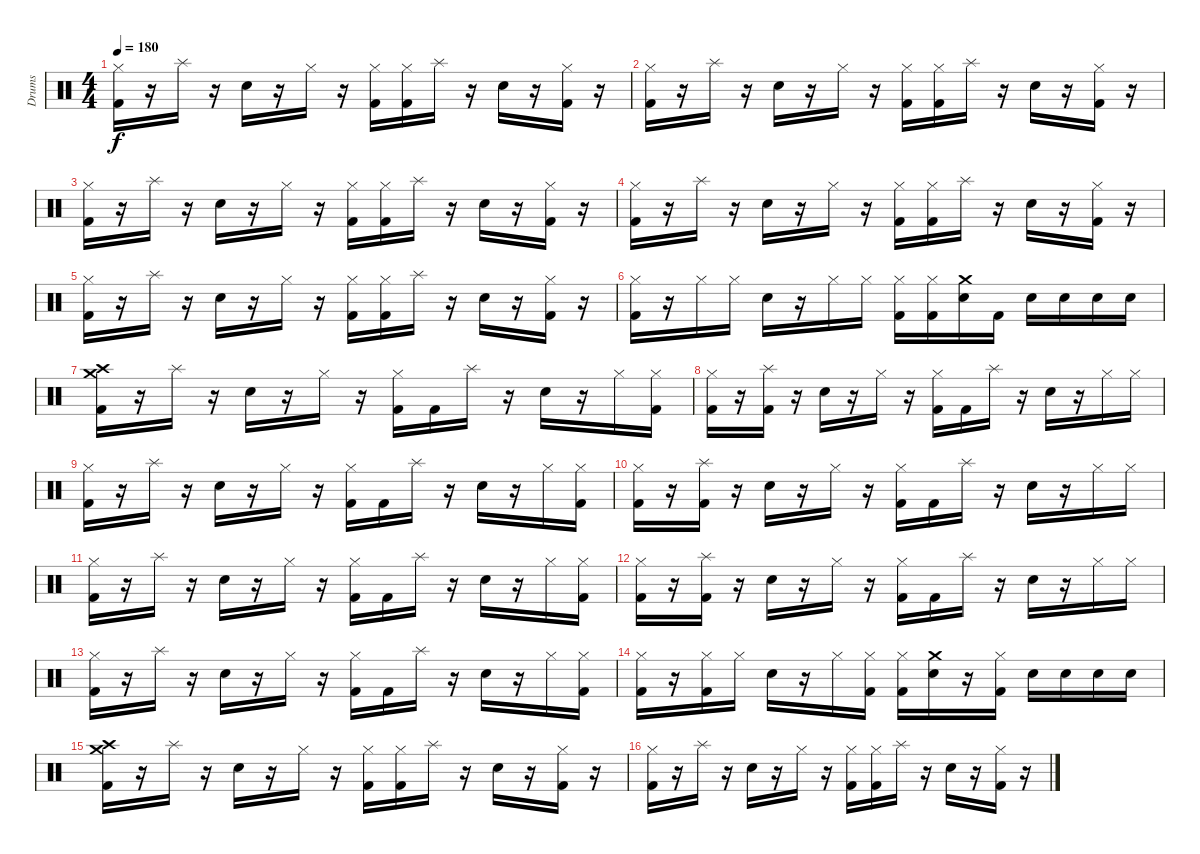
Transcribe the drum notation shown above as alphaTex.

\track ("Drums" "Drums") {instrument percussion}
\staff {score}
\articulation defaults
\ts (4 4)
\tempo 180
\clef neutral
\ks c
("Hi-Hat (closed)" "Kick (hit) 2").16{dy f} r.16 "Splash (hit)".16 r.16 "Snare (hit) 2".16 r.16 "Hi-Hat (closed)".16 r.16 ("Hi-Hat (closed)" "Kick (hit) 2").16 ("Hi-Hat (closed)" "Kick (hit) 2").16 "Splash (hit)".16 r.16 "Snare (hit) 2".16 r.16 ("Hi-Hat (closed)" "Kick (hit) 2").16 r.16 |
("Hi-Hat (closed)" "Kick (hit) 2").16 r.16 "Splash (hit)".16 r.16 "Snare (hit) 2".16 r.16 "Hi-Hat (closed)".16 r.16 ("Hi-Hat (closed)" "Kick (hit) 2").16 ("Hi-Hat (closed)" "Kick (hit) 2").16 "Splash (hit)".16 r.16 "Snare (hit) 2".16 r.16 ("Hi-Hat (closed)" "Kick (hit) 2").16 r.16 |
("Hi-Hat (closed)" "Kick (hit) 2").16 r.16 "Splash (hit)".16 r.16 "Snare (hit) 2".16 r.16 "Hi-Hat (closed)".16 r.16 ("Hi-Hat (closed)" "Kick (hit) 2").16 ("Hi-Hat (closed)" "Kick (hit) 2").16 "Splash (hit)".16 r.16 "Snare (hit) 2".16 r.16 ("Hi-Hat (closed)" "Kick (hit) 2").16 r.16 |
("Hi-Hat (closed)" "Kick (hit) 2").16 r.16 "Splash (hit)".16 r.16 "Snare (hit) 2".16 r.16 "Hi-Hat (closed)".16 r.16 ("Hi-Hat (closed)" "Kick (hit) 2").16 ("Hi-Hat (closed)" "Kick (hit) 2").16 "Splash (hit)".16 r.16 "Snare (hit) 2".16 r.16 ("Hi-Hat (closed)" "Kick (hit) 2").16 r.16 |
("Hi-Hat (closed)" "Kick (hit) 2").16 r.16 "Splash (hit)".16 r.16 "Snare (hit) 2".16 r.16 "Hi-Hat (closed)".16 r.16 ("Hi-Hat (closed)" "Kick (hit) 2").16 ("Hi-Hat (closed)" "Kick (hit) 2").16 "Splash (hit)".16 r.16 "Snare (hit) 2".16 r.16 ("Hi-Hat (closed)" "Kick (hit) 2").16 r.16 |
("Hi-Hat (closed)" "Kick (hit) 2").16 r.16 "Hi-Hat (closed)".16 "Hi-Hat (closed)".16 "Snare (hit) 2".16 r.16 "Hi-Hat (closed)".16 "Hi-Hat (closed)".16 ("Hi-Hat (closed)" "Kick (hit) 2").16 ("Hi-Hat (closed)" "Kick (hit) 2").16 ("Crash medium (hit)" "Snare (hit) 2").16 "Kick (hit) 2".16 "Snare (hit) 2".16 "Snare (hit) 2".16 "Snare (hit) 2".16 "Snare (hit) 2".16 |
("Crash medium (hit)" "Crash high (hit)" "Kick (hit) 2").16 r.16 "Splash (hit)".16 r.16 "Snare (hit) 2".16 r.16 "Hi-Hat (closed)".16 r.16 ("Hi-Hat (closed)" "Kick (hit) 2").16 "Kick (hit) 2".16 "Splash (hit)".16 r.16 "Snare (hit) 2".16 r.16 "Hi-Hat (closed)".16 ("Hi-Hat (closed)" "Kick (hit) 2").16 |
("Hi-Hat (closed)" "Kick (hit) 2").16 r.16 ("Splash (hit)" "Kick (hit) 2").16 r.16 "Snare (hit) 2".16 r.16 "Hi-Hat (closed)".16 r.16 ("Hi-Hat (closed)" "Kick (hit) 2").16 "Kick (hit) 2".16 "Splash (hit)".16 r.16 "Snare (hit) 2".16 r.16 "Hi-Hat (closed)".16 "Hi-Hat (closed)".16 |
("Hi-Hat (closed)" "Kick (hit) 2").16 r.16 "Splash (hit)".16 r.16 "Snare (hit) 2".16 r.16 "Hi-Hat (closed)".16 r.16 ("Hi-Hat (closed)" "Kick (hit) 2").16 "Kick (hit) 2".16 "Splash (hit)".16 r.16 "Snare (hit) 2".16 r.16 "Hi-Hat (closed)".16 ("Hi-Hat (closed)" "Kick (hit) 2").16 |
("Hi-Hat (closed)" "Kick (hit) 2").16 r.16 ("Splash (hit)" "Kick (hit) 2").16 r.16 "Snare (hit) 2".16 r.16 "Hi-Hat (closed)".16 r.16 ("Hi-Hat (closed)" "Kick (hit) 2").16 "Kick (hit) 2".16 "Splash (hit)".16 r.16 "Snare (hit) 2".16 r.16 "Hi-Hat (closed)".16 "Hi-Hat (closed)".16 |
("Hi-Hat (closed)" "Kick (hit) 2").16 r.16 "Splash (hit)".16 r.16 "Snare (hit) 2".16 r.16 "Hi-Hat (closed)".16 r.16 ("Hi-Hat (closed)" "Kick (hit) 2").16 "Kick (hit) 2".16 "Splash (hit)".16 r.16 "Snare (hit) 2".16 r.16 "Hi-Hat (closed)".16 ("Hi-Hat (closed)" "Kick (hit) 2").16 |
("Hi-Hat (closed)" "Kick (hit) 2").16 r.16 ("Splash (hit)" "Kick (hit) 2").16 r.16 "Snare (hit) 2".16 r.16 "Hi-Hat (closed)".16 r.16 ("Hi-Hat (closed)" "Kick (hit) 2").16 "Kick (hit) 2".16 "Splash (hit)".16 r.16 "Snare (hit) 2".16 r.16 "Hi-Hat (closed)".16 "Hi-Hat (closed)".16 |
("Hi-Hat (closed)" "Kick (hit) 2").16 r.16 "Splash (hit)".16 r.16 "Snare (hit) 2".16 r.16 "Hi-Hat (closed)".16 r.16 ("Hi-Hat (closed)" "Kick (hit) 2").16 "Kick (hit) 2".16 "Splash (hit)".16 r.16 "Snare (hit) 2".16 r.16 "Hi-Hat (closed)".16 ("Hi-Hat (closed)" "Kick (hit) 2").16 |
("Hi-Hat (closed)" "Kick (hit) 2").16 r.16 ("Hi-Hat (closed)" "Kick (hit) 2").16 "Hi-Hat (closed)".16 "Snare (hit) 2".16 r.16 "Hi-Hat (closed)".16 ("Hi-Hat (closed)" "Kick (hit) 2").16 ("Hi-Hat (closed)" "Kick (hit) 2").16 ("Crash medium (hit)" "Snare (hit) 2").16 r.16 ("Hi-Hat (closed)" "Kick (hit) 2").16 "Snare (hit) 2".16 "Snare (hit) 2".16 "Snare (hit) 2".16 "Snare (hit) 2".16 |
("Crash medium (hit)" "Crash high (hit)" "Kick (hit) 2").16 r.16 "Splash (hit)".16 r.16 "Snare (hit) 2".16 r.16 "Hi-Hat (closed)".16 r.16 ("Hi-Hat (closed)" "Kick (hit) 2").16 ("Hi-Hat (closed)" "Kick (hit) 2").16 "Splash (hit)".16 r.16 "Snare (hit) 2".16 r.16 ("Hi-Hat (closed)" "Kick (hit) 2").16 r.16 |
("Hi-Hat (closed)" "Kick (hit) 2").16 r.16 "Splash (hit)".16 r.16 "Snare (hit) 2".16 r.16 "Hi-Hat (closed)".16 r.16 ("Hi-Hat (closed)" "Kick (hit) 2").16 ("Hi-Hat (closed)" "Kick (hit) 2").16 "Splash (hit)".16 r.16 "Snare (hit) 2".16 r.16 ("Hi-Hat (closed)" "Kick (hit) 2").16 r.16
